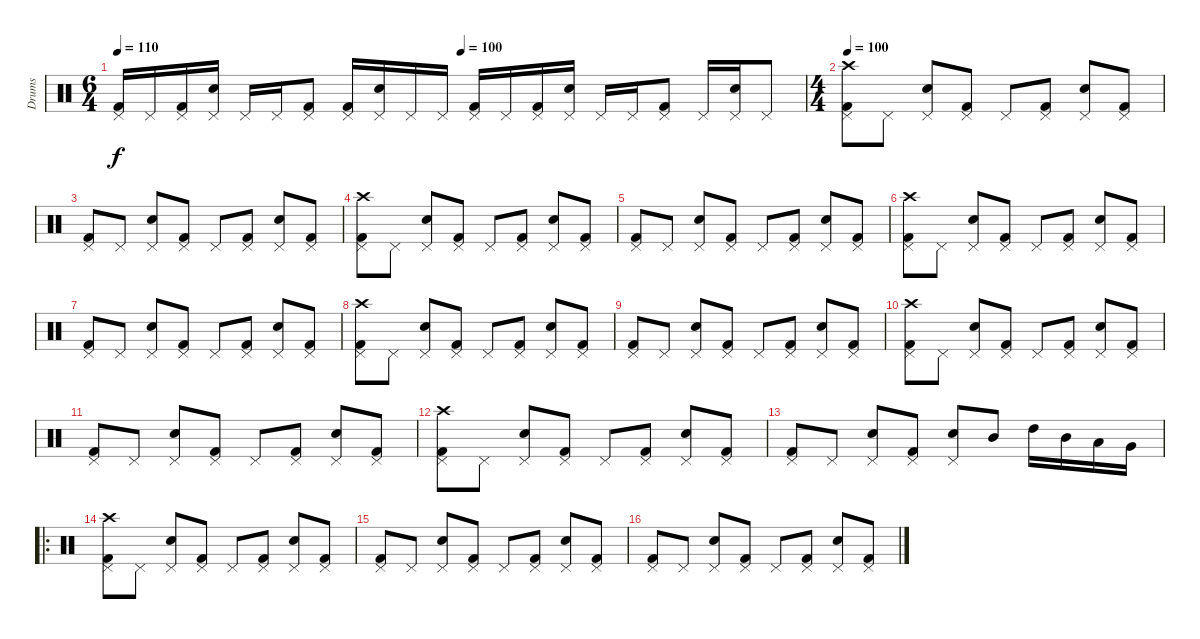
\track ("Drums" "Drums") {instrument percussion}
\staff {score}
\articulation defaults
\ts (6 4)
\tempo 110
\tempo (100 0.5)
\clef neutral
\ks c
("Kick (hit) 2" "Pedal Hi-Hat (hit)").16{dy f} "Pedal Hi-Hat (hit)".16 ("Kick (hit) 2" "Pedal Hi-Hat (hit)").16 ("Snare (hit) 2" "Pedal Hi-Hat (hit)").16 "Pedal Hi-Hat (hit)".16 "Pedal Hi-Hat (hit)".16 ("Kick (hit) 2" "Pedal Hi-Hat (hit)").8 ("Kick (hit) 2" "Pedal Hi-Hat (hit)").16 ("Snare (hit) 2" "Pedal Hi-Hat (hit)").16 "Pedal Hi-Hat (hit)".16 "Pedal Hi-Hat (hit)".16 ("Kick (hit) 2" "Pedal Hi-Hat (hit)").16 "Pedal Hi-Hat (hit)".16 ("Kick (hit) 2" "Pedal Hi-Hat (hit)").16 ("Snare (hit) 2" "Pedal Hi-Hat (hit)").16 "Pedal Hi-Hat (hit)".16 "Pedal Hi-Hat (hit)".16 ("Kick (hit) 2" "Pedal Hi-Hat (hit)").8 "Pedal Hi-Hat (hit)".16 ("Snare (hit) 2" "Pedal Hi-Hat (hit)").16 "Pedal Hi-Hat (hit)".8 |
\ts (4 4)
\tempo 100
("Kick (hit) 2" "Pedal Hi-Hat (hit)" "Crash high (hit)").8 "Pedal Hi-Hat (hit)".8 ("Snare (hit) 2" "Pedal Hi-Hat (hit)").8 ("Kick (hit) 2" "Pedal Hi-Hat (hit)").8 "Pedal Hi-Hat (hit)".8 ("Kick (hit) 2" "Pedal Hi-Hat (hit)").8 ("Snare (hit) 2" "Pedal Hi-Hat (hit)").8 ("Kick (hit) 2" "Pedal Hi-Hat (hit)").8 |
("Kick (hit) 2" "Pedal Hi-Hat (hit)").8 "Pedal Hi-Hat (hit)".8 ("Snare (hit) 2" "Pedal Hi-Hat (hit)").8 ("Kick (hit) 2" "Pedal Hi-Hat (hit)").8 "Pedal Hi-Hat (hit)".8 ("Kick (hit) 2" "Pedal Hi-Hat (hit)").8 ("Snare (hit) 2" "Pedal Hi-Hat (hit)").8 ("Kick (hit) 2" "Pedal Hi-Hat (hit)").8 |
("Kick (hit) 2" "Pedal Hi-Hat (hit)" "Crash high (hit)").8 "Pedal Hi-Hat (hit)".8 ("Snare (hit) 2" "Pedal Hi-Hat (hit)").8 ("Kick (hit) 2" "Pedal Hi-Hat (hit)").8 "Pedal Hi-Hat (hit)".8 ("Kick (hit) 2" "Pedal Hi-Hat (hit)").8 ("Snare (hit) 2" "Pedal Hi-Hat (hit)").8 ("Kick (hit) 2" "Pedal Hi-Hat (hit)").8 |
("Kick (hit) 2" "Pedal Hi-Hat (hit)").8 "Pedal Hi-Hat (hit)".8 ("Snare (hit) 2" "Pedal Hi-Hat (hit)").8 ("Kick (hit) 2" "Pedal Hi-Hat (hit)").8 "Pedal Hi-Hat (hit)".8 ("Kick (hit) 2" "Pedal Hi-Hat (hit)").8 ("Snare (hit) 2" "Pedal Hi-Hat (hit)").8 ("Kick (hit) 2" "Pedal Hi-Hat (hit)").8 |
("Kick (hit) 2" "Pedal Hi-Hat (hit)" "Crash high (hit)").8 "Pedal Hi-Hat (hit)".8 ("Snare (hit) 2" "Pedal Hi-Hat (hit)").8 ("Kick (hit) 2" "Pedal Hi-Hat (hit)").8 "Pedal Hi-Hat (hit)".8 ("Kick (hit) 2" "Pedal Hi-Hat (hit)").8 ("Snare (hit) 2" "Pedal Hi-Hat (hit)").8 ("Kick (hit) 2" "Pedal Hi-Hat (hit)").8 |
("Kick (hit) 2" "Pedal Hi-Hat (hit)").8 "Pedal Hi-Hat (hit)".8 ("Snare (hit) 2" "Pedal Hi-Hat (hit)").8 ("Kick (hit) 2" "Pedal Hi-Hat (hit)").8 "Pedal Hi-Hat (hit)".8 ("Kick (hit) 2" "Pedal Hi-Hat (hit)").8 ("Snare (hit) 2" "Pedal Hi-Hat (hit)").8 ("Kick (hit) 2" "Pedal Hi-Hat (hit)").8 |
("Kick (hit) 2" "Pedal Hi-Hat (hit)" "Crash high (hit)").8 "Pedal Hi-Hat (hit)".8 ("Snare (hit) 2" "Pedal Hi-Hat (hit)").8 ("Kick (hit) 2" "Pedal Hi-Hat (hit)").8 "Pedal Hi-Hat (hit)".8 ("Kick (hit) 2" "Pedal Hi-Hat (hit)").8 ("Snare (hit) 2" "Pedal Hi-Hat (hit)").8 ("Kick (hit) 2" "Pedal Hi-Hat (hit)").8 |
("Kick (hit) 2" "Pedal Hi-Hat (hit)").8 "Pedal Hi-Hat (hit)".8 ("Snare (hit) 2" "Pedal Hi-Hat (hit)").8 ("Kick (hit) 2" "Pedal Hi-Hat (hit)").8 "Pedal Hi-Hat (hit)".8 ("Kick (hit) 2" "Pedal Hi-Hat (hit)").8 ("Snare (hit) 2" "Pedal Hi-Hat (hit)").8 ("Kick (hit) 2" "Pedal Hi-Hat (hit)").8 |
("Kick (hit) 2" "Pedal Hi-Hat (hit)" "Crash high (hit)").8 "Pedal Hi-Hat (hit)".8 ("Snare (hit) 2" "Pedal Hi-Hat (hit)").8 ("Kick (hit) 2" "Pedal Hi-Hat (hit)").8 "Pedal Hi-Hat (hit)".8 ("Kick (hit) 2" "Pedal Hi-Hat (hit)").8 ("Snare (hit) 2" "Pedal Hi-Hat (hit)").8 ("Kick (hit) 2" "Pedal Hi-Hat (hit)").8 |
("Kick (hit) 2" "Pedal Hi-Hat (hit)").8 "Pedal Hi-Hat (hit)".8 ("Snare (hit) 2" "Pedal Hi-Hat (hit)").8 ("Kick (hit) 2" "Pedal Hi-Hat (hit)").8 "Pedal Hi-Hat (hit)".8 ("Kick (hit) 2" "Pedal Hi-Hat (hit)").8 ("Snare (hit) 2" "Pedal Hi-Hat (hit)").8 ("Kick (hit) 2" "Pedal Hi-Hat (hit)").8 |
("Kick (hit) 2" "Pedal Hi-Hat (hit)" "Crash high (hit)").8 "Pedal Hi-Hat (hit)".8 ("Snare (hit) 2" "Pedal Hi-Hat (hit)").8 ("Kick (hit) 2" "Pedal Hi-Hat (hit)").8 "Pedal Hi-Hat (hit)".8 ("Kick (hit) 2" "Pedal Hi-Hat (hit)").8 ("Snare (hit) 2" "Pedal Hi-Hat (hit)").8 ("Kick (hit) 2" "Pedal Hi-Hat (hit)").8 |
("Kick (hit) 2" "Pedal Hi-Hat (hit)").8 "Pedal Hi-Hat (hit)".8 ("Snare (hit) 2" "Pedal Hi-Hat (hit)").8 ("Kick (hit) 2" "Pedal Hi-Hat (hit)").8 ("Snare (hit) 2" "Pedal Hi-Hat (hit)").8 "Mid Tom (hit)".8 "High Tom (hit)".16 "Mid Tom (hit)".16 "Low Tom (hit)".16 "Very Low Tom (hit)".16 |
\ro
("Kick (hit) 2" "Pedal Hi-Hat (hit)" "Crash high (hit)").8 "Pedal Hi-Hat (hit)".8 ("Snare (hit) 2" "Pedal Hi-Hat (hit)").8 ("Kick (hit) 2" "Pedal Hi-Hat (hit)").8 "Pedal Hi-Hat (hit)".8 ("Kick (hit) 2" "Pedal Hi-Hat (hit)").8 ("Snare (hit) 2" "Pedal Hi-Hat (hit)").8 ("Kick (hit) 2" "Pedal Hi-Hat (hit)").8 |
("Kick (hit) 2" "Pedal Hi-Hat (hit)").8 "Pedal Hi-Hat (hit)".8 ("Snare (hit) 2" "Pedal Hi-Hat (hit)").8 ("Kick (hit) 2" "Pedal Hi-Hat (hit)").8 "Pedal Hi-Hat (hit)".8 ("Kick (hit) 2" "Pedal Hi-Hat (hit)").8 ("Snare (hit) 2" "Pedal Hi-Hat (hit)").8 ("Kick (hit) 2" "Pedal Hi-Hat (hit)").8 |
("Kick (hit) 2" "Pedal Hi-Hat (hit)").8 "Pedal Hi-Hat (hit)".8 ("Snare (hit) 2" "Pedal Hi-Hat (hit)").8 ("Kick (hit) 2" "Pedal Hi-Hat (hit)").8 "Pedal Hi-Hat (hit)".8 ("Kick (hit) 2" "Pedal Hi-Hat (hit)").8 ("Snare (hit) 2" "Pedal Hi-Hat (hit)").8 ("Kick (hit) 2" "Pedal Hi-Hat (hit)").8
